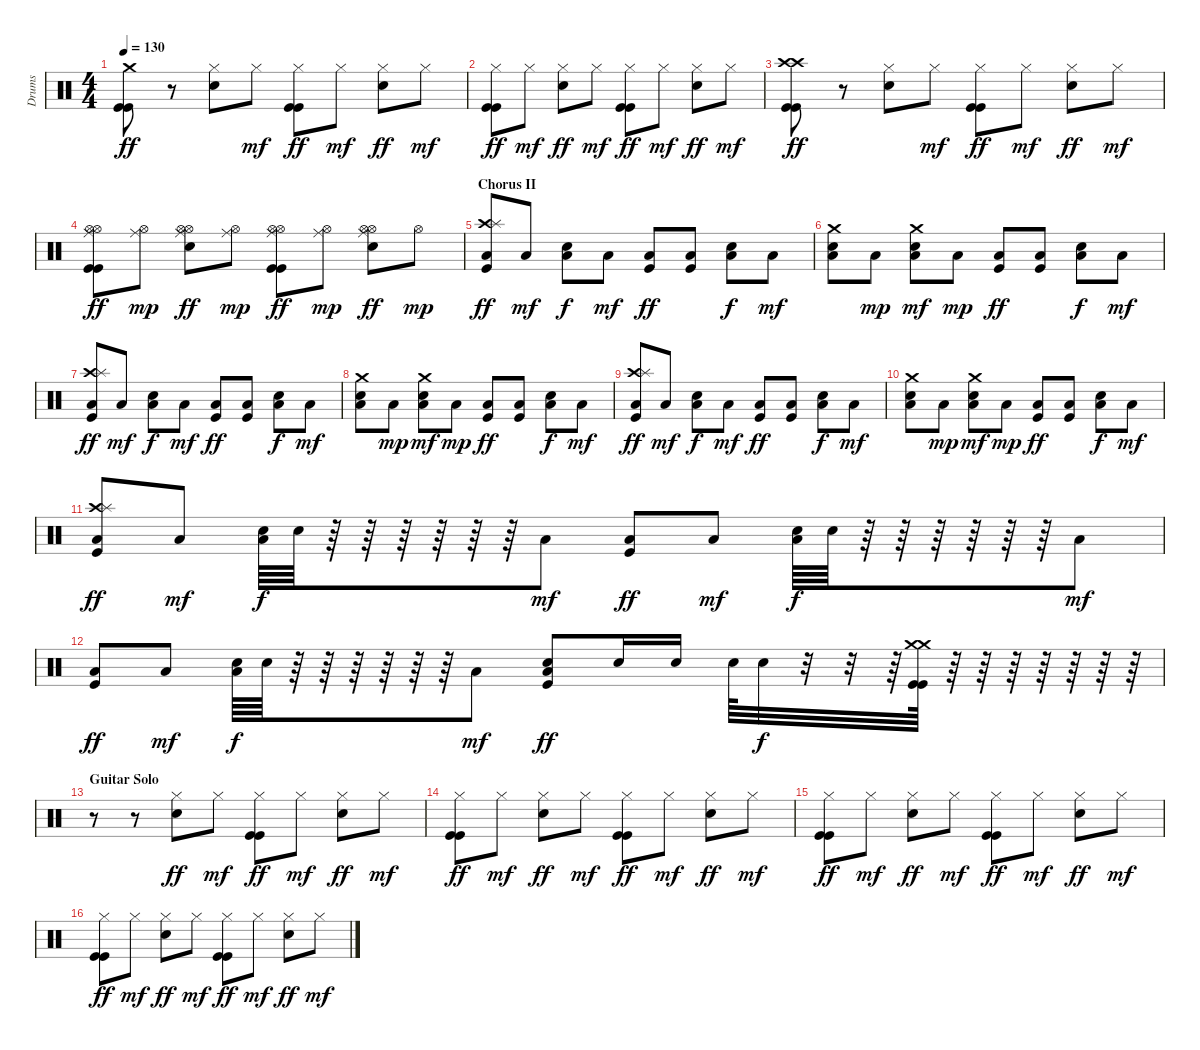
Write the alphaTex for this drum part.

\track ("Drums" "Drums") {instrument percussion}
\staff {score}
\articulation defaults
\ts (4 4)
\tempo 130
\clef neutral
\ks c
("Crash medium (hit)" "Kick (hit)" "Kick (hit)").8{dy ff} r.8 ("Hi-Hat (closed)" "Snare (hit) 2").8 "Hi-Hat (closed)".8{dy mf} ("Hi-Hat (closed)" "Kick (hit)" "Kick (hit)").8{dy ff} "Hi-Hat (closed)".8{dy mf} ("Hi-Hat (closed)" "Snare (hit) 2").8{dy ff} "Hi-Hat (closed)".8{dy mf} |
("Hi-Hat (closed)" "Kick (hit)" "Kick (hit)").8{dy ff} "Hi-Hat (closed)".8{dy mf} ("Hi-Hat (closed)" "Snare (hit) 2").8{dy ff} "Hi-Hat (closed)".8{dy mf} ("Hi-Hat (closed)" "Kick (hit)" "Kick (hit)").8{dy ff} "Hi-Hat (closed)".8{dy mf} ("Hi-Hat (closed)" "Snare (hit) 2").8{dy ff} "Hi-Hat (closed)".8{dy mf} |
("Crash high (hit)" "Crash high (hit)" "Kick (hit)" "Kick (hit)").8{dy ff} r.8 ("Hi-Hat (closed)" "Snare (hit) 2").8 "Hi-Hat (closed)".8{dy mf} ("Hi-Hat (closed)" "Kick (hit)" "Kick (hit)").8{dy ff} "Hi-Hat (closed)".8{dy mf} ("Hi-Hat (closed)" "Snare (hit) 2").8{dy ff} "Hi-Hat (closed)".8{dy mf} |
("Hi-Hat (open)" "Hi-Hat (open)" "Ride (middle)" "Kick (hit)" "Kick (hit)").8{dy ff} ("Hi-Hat (open)" "Ride (middle)").8{dy mp} ("Hi-Hat (open)" "Hi-Hat (open)" "Ride (middle)" "Snare (hit) 2").8{dy ff} ("Hi-Hat (open)" "Ride (middle)").8{dy mp} ("Hi-Hat (open)" "Hi-Hat (open)" "Ride (middle)" "Kick (hit)" "Kick (hit)").8{dy ff} ("Hi-Hat (open)" "Ride (middle)").8{dy mp} ("Hi-Hat (open)" "Hi-Hat (open)" "Ride (middle)" "Snare (hit) 2").8{dy ff} "Hi-Hat (open)".8{dy mp} |
\section ("" "Chorus II")
("Crash high (hit)" "Splash (hit)" "Low Floor Tom (hit)" "Kick (hit)").8{dy ff} "Low Floor Tom (hit)".8{dy mf} ("Snare (hit) 2" "Low Floor Tom (hit)").8{dy f} "Low Floor Tom (hit)".8{dy mf} ("Low Floor Tom (hit)" "Kick (hit)").8{dy ff} ("Low Floor Tom (hit)" "Kick (hit)").8 ("Snare (hit) 2" "Low Floor Tom (hit)").8{dy f} "Low Floor Tom (hit)".8{dy mf} |
("Crash medium (hit)" "Snare (hit) 2" "Low Floor Tom (hit)").8 "Low Floor Tom (hit)".8{dy mp} ("Crash medium (hit)" "Snare (hit) 2" "Low Floor Tom (hit)").8{dy mf} "Low Floor Tom (hit)".8{dy mp} ("Low Floor Tom (hit)" "Kick (hit)").8{dy ff} ("Low Floor Tom (hit)" "Kick (hit)").8 ("Snare (hit) 2" "Low Floor Tom (hit)").8{dy f} "Low Floor Tom (hit)".8{dy mf} |
("Crash high (hit)" "Splash (hit)" "Low Floor Tom (hit)" "Kick (hit)").8{dy ff} "Low Floor Tom (hit)".8{dy mf} ("Snare (hit) 2" "Low Floor Tom (hit)").8{dy f} "Low Floor Tom (hit)".8{dy mf} ("Low Floor Tom (hit)" "Kick (hit)").8{dy ff} ("Low Floor Tom (hit)" "Kick (hit)").8 ("Snare (hit) 2" "Low Floor Tom (hit)").8{dy f} "Low Floor Tom (hit)".8{dy mf} |
("Crash medium (hit)" "Snare (hit) 2" "Low Floor Tom (hit)").8 "Low Floor Tom (hit)".8{dy mp} ("Crash medium (hit)" "Snare (hit) 2" "Low Floor Tom (hit)").8{dy mf} "Low Floor Tom (hit)".8{dy mp} ("Low Floor Tom (hit)" "Kick (hit)").8{dy ff} ("Low Floor Tom (hit)" "Kick (hit)").8 ("Snare (hit) 2" "Low Floor Tom (hit)").8{dy f} "Low Floor Tom (hit)".8{dy mf} |
("Crash high (hit)" "Splash (hit)" "Low Floor Tom (hit)" "Kick (hit)").8{dy ff} "Low Floor Tom (hit)".8{dy mf} ("Snare (hit) 2" "Low Floor Tom (hit)").8{dy f} "Low Floor Tom (hit)".8{dy mf} ("Low Floor Tom (hit)" "Kick (hit)").8{dy ff} ("Low Floor Tom (hit)" "Kick (hit)").8 ("Snare (hit) 2" "Low Floor Tom (hit)").8{dy f} "Low Floor Tom (hit)".8{dy mf} |
("Crash medium (hit)" "Snare (hit) 2" "Low Floor Tom (hit)").8 "Low Floor Tom (hit)".8{dy mp} ("Crash medium (hit)" "Snare (hit) 2" "Low Floor Tom (hit)").8{dy mf} "Low Floor Tom (hit)".8{dy mp} ("Low Floor Tom (hit)" "Kick (hit)").8{dy ff} ("Low Floor Tom (hit)" "Kick (hit)").8 ("Snare (hit) 2" "Low Floor Tom (hit)").8{dy f} "Low Floor Tom (hit)".8{dy mf} |
("Crash high (hit)" "Splash (hit)" "Low Floor Tom (hit)" "Kick (hit)").8{dy ff} "Low Floor Tom (hit)".8{dy mf} ("Snare (hit) 2" "Low Floor Tom (hit)").64{dy f} "Snare (hit) 2".64 r.64 r.64 r.64 r.64 r.64 r.64 "Low Floor Tom (hit)".8{dy mf} ("Low Floor Tom (hit)" "Kick (hit)").8{dy ff} "Low Floor Tom (hit)".8{dy mf} ("Snare (hit) 2" "Low Floor Tom (hit)").64{dy f} "Snare (hit) 2".64 r.64 r.64 r.64 r.64 r.64 r.64 "Low Floor Tom (hit)".8{dy mf} |
("Low Floor Tom (hit)" "Kick (hit)").8{dy ff} "Low Floor Tom (hit)".8{dy mf} ("Snare (hit) 2" "Low Floor Tom (hit)").64{dy f} "Snare (hit) 2".64 r.64 r.64 r.64 r.64 r.64 r.64 "Low Floor Tom (hit)".8{dy mf} ("Snare (hit) 2" "Low Floor Tom (hit)" "Kick (hit)").8{dy ff} "Snare (hit) 2".16 "Snare (hit) 2".16 "Snare (hit) 2".64 "Snare (hit) 2".32{dy f} r.32 r.32 r.64 ("Crash medium (hit)" "Crash medium (hit)" "Kick (hit)" "Kick (hit)").64 r.64 r.64 r.64 r.64 r.64 r.64 r.64 |
\section ("" "Guitar Solo")
r.8 r.8 ("Hi-Hat (closed)" "Snare (hit) 2").8{dy ff} "Hi-Hat (closed)".8{dy mf} ("Hi-Hat (closed)" "Kick (hit)" "Kick (hit)").8{dy ff} "Hi-Hat (closed)".8{dy mf} ("Hi-Hat (closed)" "Snare (hit) 2").8{dy ff} "Hi-Hat (closed)".8{dy mf} |
("Hi-Hat (closed)" "Kick (hit)" "Kick (hit)").8{dy ff} "Hi-Hat (closed)".8{dy mf} ("Hi-Hat (closed)" "Snare (hit) 2").8{dy ff} "Hi-Hat (closed)".8{dy mf} ("Hi-Hat (closed)" "Kick (hit)" "Kick (hit)").8{dy ff} "Hi-Hat (closed)".8{dy mf} ("Hi-Hat (closed)" "Snare (hit) 2").8{dy ff} "Hi-Hat (closed)".8{dy mf} |
("Hi-Hat (closed)" "Kick (hit)" "Kick (hit)").8{dy ff} "Hi-Hat (closed)".8{dy mf} ("Hi-Hat (closed)" "Snare (hit) 2").8{dy ff} "Hi-Hat (closed)".8{dy mf} ("Hi-Hat (closed)" "Kick (hit)" "Kick (hit)").8{dy ff} "Hi-Hat (closed)".8{dy mf} ("Hi-Hat (closed)" "Snare (hit) 2").8{dy ff} "Hi-Hat (closed)".8{dy mf} |
("Hi-Hat (closed)" "Kick (hit)" "Kick (hit)").8{dy ff} "Hi-Hat (closed)".8{dy mf} ("Hi-Hat (closed)" "Snare (hit) 2").8{dy ff} "Hi-Hat (closed)".8{dy mf} ("Hi-Hat (closed)" "Kick (hit)" "Kick (hit)").8{dy ff} "Hi-Hat (closed)".8{dy mf} ("Hi-Hat (closed)" "Snare (hit) 2").8{dy ff} "Hi-Hat (closed)".8{dy mf}
